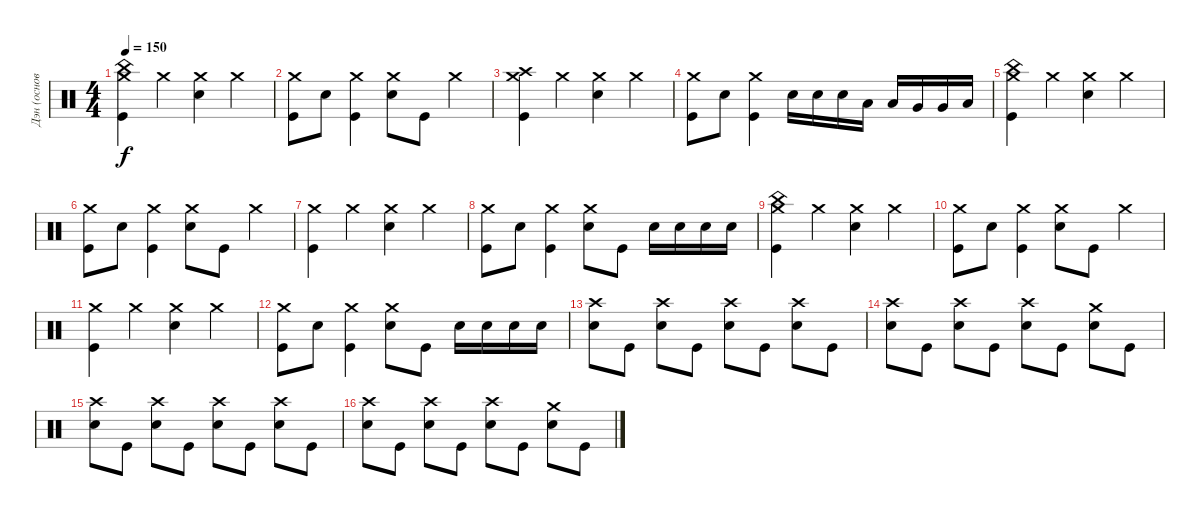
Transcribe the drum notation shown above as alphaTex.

\track ("Дэн (основа)" "Дэн (основ") {instrument percussion}
\staff {score}
\articulation defaults
\ts (4 4)
\tempo 150
\clef neutral
\ks c
("China (hit)" "Crash medium (hit)" "Kick (hit)").4{dy f} "Crash medium (hit)".4 ("Crash medium (hit)" "Electric Snare (hit)").4 "Crash medium (hit)".4 |
("Crash medium (hit)" "Kick (hit)").8 "Electric Snare (hit)".8 ("Crash medium (hit)" "Kick (hit)").4 ("Crash medium (hit)" "Electric Snare (hit)").8 "Kick (hit)".8 "Crash medium (hit)".4 |
("Crash high (hit)" "Crash medium (hit)" "Kick (hit)").4 "Crash medium (hit)".4 ("Crash medium (hit)" "Electric Snare (hit)").4 "Crash medium (hit)".4 |
("Crash medium (hit)" "Kick (hit)").8 "Electric Snare (hit)".8 ("Crash medium (hit)" "Kick (hit)").4 "Electric Snare (hit)".16 "Electric Snare (hit)".16 "Electric Snare (hit)".16 "Low Tom (hit)".16 "Low Tom (hit)".16 "Very Low Tom (hit)".16 "Very Low Tom (hit)".16 "Low Floor Tom (hit)".16 |
("China (hit)" "Crash medium (hit)" "Kick (hit)").4 "Crash medium (hit)".4 ("Crash medium (hit)" "Electric Snare (hit)").4 "Crash medium (hit)".4 |
("Crash medium (hit)" "Kick (hit)").8 "Electric Snare (hit)".8 ("Crash medium (hit)" "Kick (hit)").4 ("Crash medium (hit)" "Electric Snare (hit)").8 "Kick (hit)".8 "Crash medium (hit)".4 |
("Crash medium (hit)" "Kick (hit)").4 "Crash medium (hit)".4 ("Crash medium (hit)" "Electric Snare (hit)").4 "Crash medium (hit)".4 |
("Crash medium (hit)" "Kick (hit)").8 "Electric Snare (hit)".8 ("Crash medium (hit)" "Kick (hit)").4 ("Crash medium (hit)" "Electric Snare (hit)").8 "Kick (hit)".8 "Electric Snare (hit)".16 "Electric Snare (hit)".16 "Electric Snare (hit)".16 "Electric Snare (hit)".16 |
("China (hit)" "Crash medium (hit)" "Kick (hit)").4 "Crash medium (hit)".4 ("Crash medium (hit)" "Electric Snare (hit)").4 "Crash medium (hit)".4 |
("Crash medium (hit)" "Kick (hit)").8 "Electric Snare (hit)".8 ("Crash medium (hit)" "Kick (hit)").4 ("Crash medium (hit)" "Electric Snare (hit)").8 "Kick (hit)".8 "Crash medium (hit)".4 |
("Crash medium (hit)" "Kick (hit)").4 "Crash medium (hit)".4 ("Crash medium (hit)" "Electric Snare (hit)").4 "Crash medium (hit)".4 |
("Crash medium (hit)" "Kick (hit)").8 "Electric Snare (hit)".8 ("Crash medium (hit)" "Kick (hit)").4 ("Crash medium (hit)" "Electric Snare (hit)").8 "Kick (hit)".8 "Electric Snare (hit)".16 "Electric Snare (hit)".16 "Electric Snare (hit)".16 "Electric Snare (hit)".16 |
("Crash high (hit)" "Electric Snare (hit)").8 "Kick (hit)".8 ("Crash high (hit)" "Electric Snare (hit)").8 "Kick (hit)".8 ("Crash high (hit)" "Electric Snare (hit)").8 "Kick (hit)".8 ("Crash high (hit)" "Electric Snare (hit)").8 "Kick (hit)".8 |
("Crash high (hit)" "Electric Snare (hit)").8 "Kick (hit)".8 ("Crash high (hit)" "Electric Snare (hit)").8 "Kick (hit)".8 ("Crash high (hit)" "Electric Snare (hit)").8 "Kick (hit)".8 ("Crash medium (hit)" "Electric Snare (hit)").8 "Kick (hit)".8 |
("Crash high (hit)" "Electric Snare (hit)").8 "Kick (hit)".8 ("Crash high (hit)" "Electric Snare (hit)").8 "Kick (hit)".8 ("Crash high (hit)" "Electric Snare (hit)").8 "Kick (hit)".8 ("Crash high (hit)" "Electric Snare (hit)").8 "Kick (hit)".8 |
("Crash high (hit)" "Electric Snare (hit)").8 "Kick (hit)".8 ("Crash high (hit)" "Electric Snare (hit)").8 "Kick (hit)".8 ("Crash high (hit)" "Electric Snare (hit)").8 "Kick (hit)".8 ("Crash medium (hit)" "Electric Snare (hit)").8 "Kick (hit)".8
